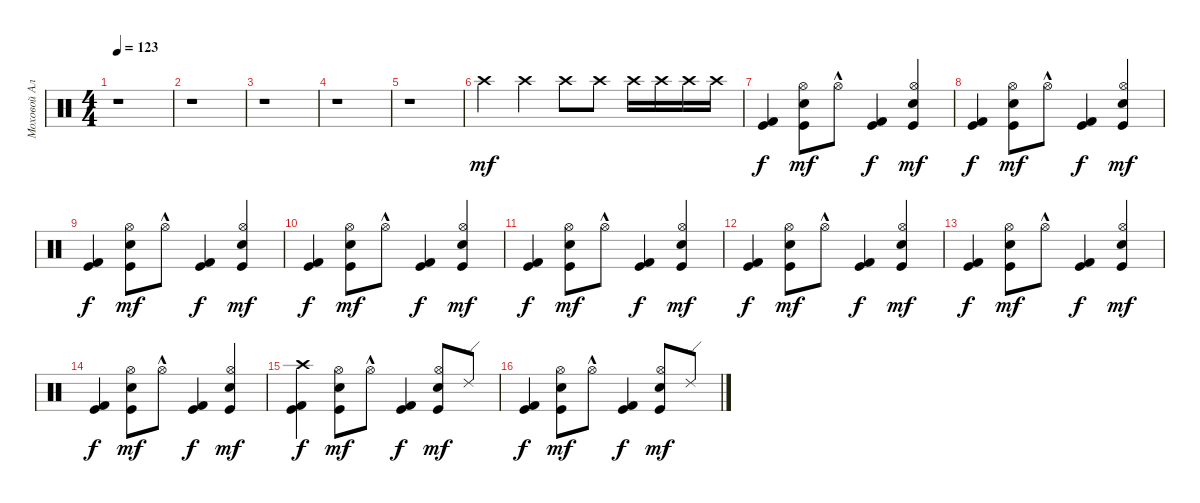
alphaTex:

\track ("Moxoвой Алексей" "Moxoвой Ал") {instrument percussion}
\staff {score}
\articulation defaults
\ts (4 4)
\tempo 123
\clef neutral
\ks c
r.1{dy f} |
r.1 |
r.1 |
r.1 |
r.1 |
"Crash high (hit)".4{dy mf} "Crash high (hit)".4 "Crash high (hit)".8 "Crash high (hit)".8 "Crash high (hit)".16 "Crash high (hit)".16 "Crash high (hit)".16 "Crash high (hit)".16 |
("Kick (hit) 2" "Kick (hit)").4{dy f} ("Kick (hit)" "Hi-Hat (open)" "Hand Clap (hit)").8{dy mf} "Hi-Hat (open)"{hac}.8 ("Kick (hit) 2" "Kick (hit)").4{dy f} ("Hi-Hat (open)" "Kick (hit)" "Hand Clap (hit)").4{dy mf} |
("Kick (hit) 2" "Kick (hit)").4{dy f} ("Kick (hit)" "Hand Clap (hit)" "Hi-Hat (open)").8{dy mf} "Hi-Hat (open)"{hac}.8 ("Kick (hit) 2" "Kick (hit)").4{dy f} ("Hand Clap (hit)" "Hi-Hat (open)" "Kick (hit)").4{dy mf} |
("Kick (hit)" "Kick (hit) 2").4{dy f} ("Hi-Hat (open)" "Hand Clap (hit)" "Kick (hit)").8{dy mf} "Hi-Hat (open)"{hac}.8 ("Kick (hit) 2" "Kick (hit)").4{dy f} ("Kick (hit)" "Hi-Hat (open)" "Hand Clap (hit)").4{dy mf} |
("Kick (hit) 2" "Kick (hit)").4{dy f} ("Kick (hit)" "Hi-Hat (open)" "Hand Clap (hit)").8{dy mf} "Hi-Hat (open)"{hac}.8 ("Kick (hit) 2" "Kick (hit)").4{dy f} ("Hi-Hat (open)" "Hand Clap (hit)" "Kick (hit)").4{dy mf} |
("Kick (hit) 2" "Kick (hit)").4{dy f} ("Kick (hit)" "Hi-Hat (open)" "Hand Clap (hit)").8{dy mf} "Hi-Hat (open)"{hac}.8 ("Kick (hit) 2" "Kick (hit)").4{dy f} ("Hi-Hat (open)" "Kick (hit)" "Hand Clap (hit)").4{dy mf} |
("Kick (hit) 2" "Kick (hit)").4{dy f} ("Kick (hit)" "Hand Clap (hit)" "Hi-Hat (open)").8{dy mf} "Hi-Hat (open)"{hac}.8 ("Kick (hit) 2" "Kick (hit)").4{dy f} ("Hand Clap (hit)" "Hi-Hat (open)" "Kick (hit)").4{dy mf} |
("Kick (hit)" "Kick (hit) 2").4{dy f} ("Hi-Hat (open)" "Hand Clap (hit)" "Kick (hit)").8{dy mf} "Hi-Hat (open)"{hac}.8 ("Kick (hit) 2" "Kick (hit)").4{dy f} ("Kick (hit)" "Hi-Hat (open)" "Hand Clap (hit)").4{dy mf} |
("Kick (hit) 2" "Kick (hit)").4{dy f} ("Kick (hit)" "Hi-Hat (open)" "Hand Clap (hit)").8{dy mf} "Hi-Hat (open)"{hac}.8 ("Kick (hit) 2" "Kick (hit)").4{dy f} ("Hi-Hat (open)" "Hand Clap (hit)" "Kick (hit)").4{dy mf} |
("Kick (hit)" "Crash high (hit)" "Kick (hit) 2").4{dy f} ("Hi-Hat (open)" "Kick (hit)" "Hand Clap (hit)").8{dy mf} "Hi-Hat (open)"{hac}.8 ("Kick (hit)" "Kick (hit) 2").4{dy f} ("Kick (hit)" "Hand Clap (hit)" "Hi-Hat (open)").8{dy mf} "Ride (edge) 2".8 |
("Kick (hit)" "Kick (hit) 2").4{dy f} ("Hand Clap (hit)" "Hi-Hat (open)" "Kick (hit)").8{dy mf} "Hi-Hat (open)"{hac}.8 ("Kick (hit)" "Kick (hit) 2").4{dy f} ("Kick (hit)" "Hi-Hat (open)" "Hand Clap (hit)").8{dy mf} "Ride (edge) 2".8
